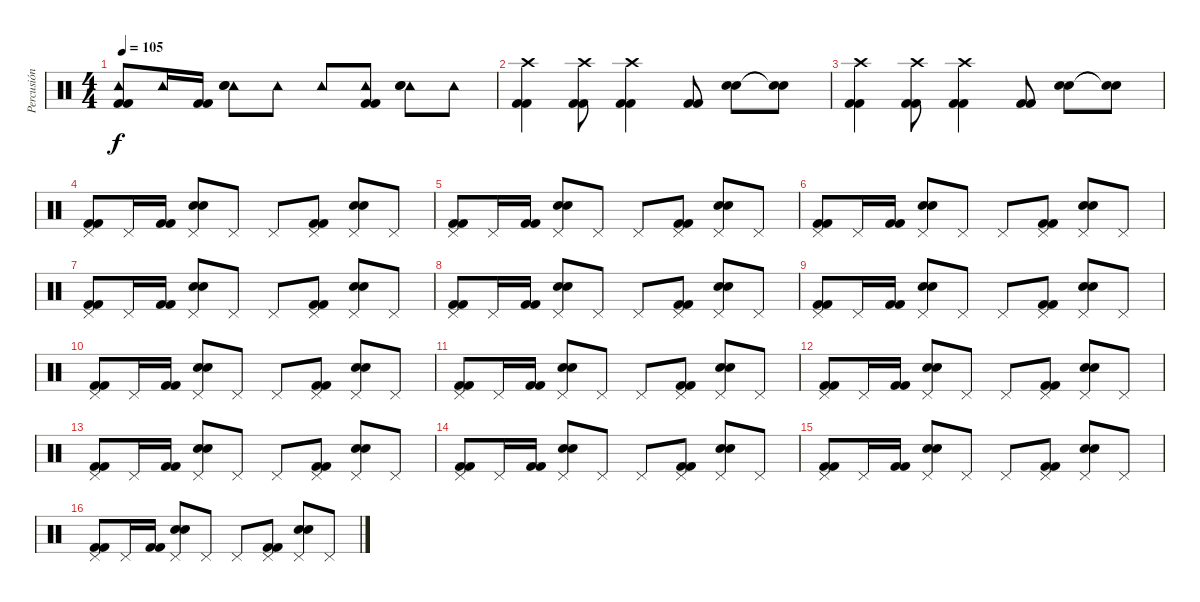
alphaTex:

\track ("Percusión" "Percusión") {instrument percussion}
\staff {score}
\articulation defaults
\ts (4 4)
\tempo 105
\clef neutral
\ks c
("Tambourine (hit)" "Kick (hit) 2" "Kick (hit) 2").8{dy f} "Tambourine (hit)".16 ("Kick (hit) 2" "Kick (hit) 2").16 ("Tambourine (hit)" "Electric Snare (hit)" "Electric Snare (hit)").8 "Tambourine (hit)".8 "Tambourine (hit)".8 ("Tambourine (hit)" "Kick (hit) 2" "Kick (hit) 2").8 ("Tambourine (hit)" "Electric Snare (hit)" "Electric Snare (hit)").8 "Tambourine (hit)".8 |
("Crash high (hit)" "Kick (hit) 2" "Kick (hit) 2").4 ("Crash high (hit)" "Kick (hit) 2" "Kick (hit) 2").8 ("Crash high (hit)" "Kick (hit) 2" "Kick (hit) 2").4 ("Kick (hit) 2" "Kick (hit) 2").8 ("Electric Snare (hit)" "Electric Snare (hit)").8 ("Snare (hit)"{t} "Snare (hit)"{t}).8 |
("Crash high (hit)" "Kick (hit) 2" "Kick (hit) 2").4 ("Crash high (hit)" "Kick (hit) 2" "Kick (hit) 2").8 ("Crash high (hit)" "Kick (hit) 2" "Kick (hit) 2").4 ("Kick (hit) 2" "Kick (hit) 2").8 ("Electric Snare (hit)" "Electric Snare (hit)").8 ("Snare (hit)"{t} "Snare (hit)"{t}).8 |
("Pedal Hi-Hat (hit)" "Kick (hit) 2" "Kick (hit) 2").8 "Pedal Hi-Hat (hit)".16 ("Kick (hit) 2" "Kick (hit) 2").16 ("Pedal Hi-Hat (hit)" "Electric Snare (hit)" "Electric Snare (hit)").8 "Pedal Hi-Hat (hit)".8 "Pedal Hi-Hat (hit)".8 ("Pedal Hi-Hat (hit)" "Kick (hit) 2" "Kick (hit) 2").8 ("Pedal Hi-Hat (hit)" "Electric Snare (hit)" "Electric Snare (hit)").8 "Pedal Hi-Hat (hit)".8 |
("Pedal Hi-Hat (hit)" "Kick (hit) 2" "Kick (hit) 2").8 "Pedal Hi-Hat (hit)".16 ("Kick (hit) 2" "Kick (hit) 2").16 ("Pedal Hi-Hat (hit)" "Electric Snare (hit)" "Electric Snare (hit)").8 "Pedal Hi-Hat (hit)".8 "Pedal Hi-Hat (hit)".8 ("Pedal Hi-Hat (hit)" "Kick (hit) 2" "Kick (hit) 2").8 ("Pedal Hi-Hat (hit)" "Electric Snare (hit)" "Electric Snare (hit)").8 "Pedal Hi-Hat (hit)".8 |
("Pedal Hi-Hat (hit)" "Kick (hit) 2" "Kick (hit) 2").8 "Pedal Hi-Hat (hit)".16 ("Kick (hit) 2" "Kick (hit) 2").16 ("Pedal Hi-Hat (hit)" "Electric Snare (hit)" "Electric Snare (hit)").8 "Pedal Hi-Hat (hit)".8 "Pedal Hi-Hat (hit)".8 ("Pedal Hi-Hat (hit)" "Kick (hit) 2" "Kick (hit) 2").8 ("Pedal Hi-Hat (hit)" "Electric Snare (hit)" "Electric Snare (hit)").8 "Pedal Hi-Hat (hit)".8 |
("Pedal Hi-Hat (hit)" "Kick (hit) 2" "Kick (hit) 2").8 "Pedal Hi-Hat (hit)".16 ("Kick (hit) 2" "Kick (hit) 2").16 ("Pedal Hi-Hat (hit)" "Electric Snare (hit)" "Electric Snare (hit)").8 "Pedal Hi-Hat (hit)".8 "Pedal Hi-Hat (hit)".8 ("Pedal Hi-Hat (hit)" "Kick (hit) 2" "Kick (hit) 2").8 ("Pedal Hi-Hat (hit)" "Electric Snare (hit)" "Electric Snare (hit)").8 "Pedal Hi-Hat (hit)".8 |
("Pedal Hi-Hat (hit)" "Kick (hit) 2" "Kick (hit) 2").8 "Pedal Hi-Hat (hit)".16 ("Kick (hit) 2" "Kick (hit) 2").16 ("Pedal Hi-Hat (hit)" "Electric Snare (hit)" "Electric Snare (hit)").8 "Pedal Hi-Hat (hit)".8 "Pedal Hi-Hat (hit)".8 ("Pedal Hi-Hat (hit)" "Kick (hit) 2" "Kick (hit) 2").8 ("Pedal Hi-Hat (hit)" "Electric Snare (hit)" "Electric Snare (hit)").8 "Pedal Hi-Hat (hit)".8 |
("Pedal Hi-Hat (hit)" "Kick (hit) 2" "Kick (hit) 2").8 "Pedal Hi-Hat (hit)".16 ("Kick (hit) 2" "Kick (hit) 2").16 ("Pedal Hi-Hat (hit)" "Electric Snare (hit)" "Electric Snare (hit)").8 "Pedal Hi-Hat (hit)".8 "Pedal Hi-Hat (hit)".8 ("Pedal Hi-Hat (hit)" "Kick (hit) 2" "Kick (hit) 2").8 ("Pedal Hi-Hat (hit)" "Electric Snare (hit)" "Electric Snare (hit)").8 "Pedal Hi-Hat (hit)".8 |
("Pedal Hi-Hat (hit)" "Kick (hit) 2" "Kick (hit) 2").8 "Pedal Hi-Hat (hit)".16 ("Kick (hit) 2" "Kick (hit) 2").16 ("Pedal Hi-Hat (hit)" "Electric Snare (hit)" "Electric Snare (hit)").8 "Pedal Hi-Hat (hit)".8 "Pedal Hi-Hat (hit)".8 ("Pedal Hi-Hat (hit)" "Kick (hit) 2" "Kick (hit) 2").8 ("Pedal Hi-Hat (hit)" "Electric Snare (hit)" "Electric Snare (hit)").8 "Pedal Hi-Hat (hit)".8 |
("Pedal Hi-Hat (hit)" "Kick (hit) 2" "Kick (hit) 2").8 "Pedal Hi-Hat (hit)".16 ("Kick (hit) 2" "Kick (hit) 2").16 ("Pedal Hi-Hat (hit)" "Electric Snare (hit)" "Electric Snare (hit)").8 "Pedal Hi-Hat (hit)".8 "Pedal Hi-Hat (hit)".8 ("Pedal Hi-Hat (hit)" "Kick (hit) 2" "Kick (hit) 2").8 ("Pedal Hi-Hat (hit)" "Electric Snare (hit)" "Electric Snare (hit)").8 "Pedal Hi-Hat (hit)".8 |
("Pedal Hi-Hat (hit)" "Kick (hit) 2" "Kick (hit) 2").8 "Pedal Hi-Hat (hit)".16 ("Kick (hit) 2" "Kick (hit) 2").16 ("Pedal Hi-Hat (hit)" "Electric Snare (hit)" "Electric Snare (hit)").8 "Pedal Hi-Hat (hit)".8 "Pedal Hi-Hat (hit)".8 ("Pedal Hi-Hat (hit)" "Kick (hit) 2" "Kick (hit) 2").8 ("Pedal Hi-Hat (hit)" "Electric Snare (hit)" "Electric Snare (hit)").8 "Pedal Hi-Hat (hit)".8 |
("Pedal Hi-Hat (hit)" "Kick (hit) 2" "Kick (hit) 2").8 "Pedal Hi-Hat (hit)".16 ("Kick (hit) 2" "Kick (hit) 2").16 ("Pedal Hi-Hat (hit)" "Electric Snare (hit)" "Electric Snare (hit)").8 "Pedal Hi-Hat (hit)".8 "Pedal Hi-Hat (hit)".8 ("Pedal Hi-Hat (hit)" "Kick (hit) 2" "Kick (hit) 2").8 ("Pedal Hi-Hat (hit)" "Electric Snare (hit)" "Electric Snare (hit)").8 "Pedal Hi-Hat (hit)".8 |
("Pedal Hi-Hat (hit)" "Kick (hit) 2" "Kick (hit) 2").8 "Pedal Hi-Hat (hit)".16 ("Kick (hit) 2" "Kick (hit) 2").16 ("Pedal Hi-Hat (hit)" "Electric Snare (hit)" "Electric Snare (hit)").8 "Pedal Hi-Hat (hit)".8 "Pedal Hi-Hat (hit)".8 ("Pedal Hi-Hat (hit)" "Kick (hit) 2" "Kick (hit) 2").8 ("Pedal Hi-Hat (hit)" "Electric Snare (hit)" "Electric Snare (hit)").8 "Pedal Hi-Hat (hit)".8 |
("Pedal Hi-Hat (hit)" "Kick (hit) 2" "Kick (hit) 2").8 "Pedal Hi-Hat (hit)".16 ("Kick (hit) 2" "Kick (hit) 2").16 ("Pedal Hi-Hat (hit)" "Electric Snare (hit)" "Electric Snare (hit)").8 "Pedal Hi-Hat (hit)".8 "Pedal Hi-Hat (hit)".8 ("Pedal Hi-Hat (hit)" "Kick (hit) 2" "Kick (hit) 2").8 ("Pedal Hi-Hat (hit)" "Electric Snare (hit)" "Electric Snare (hit)").8 "Pedal Hi-Hat (hit)".8 |
("Pedal Hi-Hat (hit)" "Kick (hit) 2" "Kick (hit) 2").8 "Pedal Hi-Hat (hit)".16 ("Kick (hit) 2" "Kick (hit) 2").16 ("Pedal Hi-Hat (hit)" "Electric Snare (hit)" "Electric Snare (hit)").8 "Pedal Hi-Hat (hit)".8 "Pedal Hi-Hat (hit)".8 ("Pedal Hi-Hat (hit)" "Kick (hit) 2" "Kick (hit) 2").8 ("Pedal Hi-Hat (hit)" "Electric Snare (hit)" "Electric Snare (hit)").8 "Pedal Hi-Hat (hit)".8
